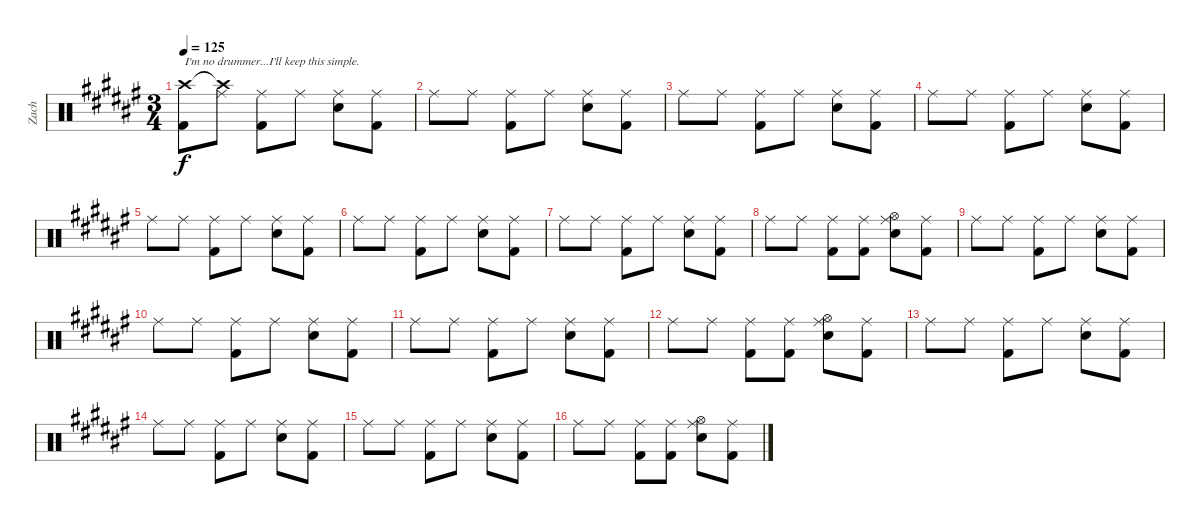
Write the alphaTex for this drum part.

\track ("Zach" "Zach") {instrument percussion}
\staff {score}
\articulation defaults
\ts (3 4)
\tempo 125
\clef neutral
\ks f#
("Crash high (hit)" "Kick (hit) 2").8{txt "I'm no drummer...I'll keep this simple." dy f} ("Crash high (hit)"{t} "Ride (middle)").8 ("Ride (middle)" "Kick (hit) 2").8 "Ride (middle)".8 ("Ride (middle)" "Snare (hit) 2").8 ("Ride (middle)" "Kick (hit) 2").8 |
"Ride (middle)".8 "Ride (middle)".8 ("Ride (middle)" "Kick (hit) 2").8 "Ride (middle)".8 ("Ride (middle)" "Snare (hit) 2").8 ("Ride (middle)" "Kick (hit) 2").8 |
"Ride (middle)".8 "Ride (middle)".8 ("Ride (middle)" "Kick (hit) 2").8 "Ride (middle)".8 ("Ride (middle)" "Snare (hit) 2").8 ("Ride (middle)" "Kick (hit) 2").8 |
"Ride (middle)".8 "Ride (middle)".8 ("Ride (middle)" "Kick (hit) 2").8 "Ride (middle)".8 ("Ride (middle)" "Snare (hit) 2").8 ("Ride (middle)" "Kick (hit) 2").8 |
"Ride (middle)".8 "Ride (middle)".8 ("Ride (middle)" "Kick (hit) 2").8 "Ride (middle)".8 ("Ride (middle)" "Snare (hit) 2").8 ("Ride (middle)" "Kick (hit) 2").8 |
"Ride (middle)".8 "Ride (middle)".8 ("Ride (middle)" "Kick (hit) 2").8 "Ride (middle)".8 ("Ride (middle)" "Snare (hit) 2").8 ("Ride (middle)" "Kick (hit) 2").8 |
"Ride (middle)".8 "Ride (middle)".8 ("Ride (middle)" "Kick (hit) 2").8 "Ride (middle)".8 ("Ride (middle)" "Snare (hit) 2").8 ("Ride (middle)" "Kick (hit) 2").8 |
"Ride (middle)".8 "Ride (middle)".8 ("Ride (middle)" "Kick (hit) 2").8 ("Ride (middle)" "Kick (hit) 2").8 ("Hi-Hat (open)" "Ride (middle)" "Snare (hit) 2").8 ("Ride (middle)" "Kick (hit) 2").8 |
"Ride (middle)".8 "Ride (middle)".8 ("Ride (middle)" "Kick (hit) 2").8 "Ride (middle)".8 ("Ride (middle)" "Snare (hit) 2").8 ("Ride (middle)" "Kick (hit) 2").8 |
"Ride (middle)".8 "Ride (middle)".8 ("Ride (middle)" "Kick (hit) 2").8 "Ride (middle)".8 ("Ride (middle)" "Snare (hit) 2").8 ("Ride (middle)" "Kick (hit) 2").8 |
"Ride (middle)".8 "Ride (middle)".8 ("Ride (middle)" "Kick (hit) 2").8 "Ride (middle)".8 ("Ride (middle)" "Snare (hit) 2").8 ("Ride (middle)" "Kick (hit) 2").8 |
"Ride (middle)".8 "Ride (middle)".8 ("Ride (middle)" "Kick (hit) 2").8 ("Ride (middle)" "Kick (hit) 2").8 ("Hi-Hat (open)" "Ride (middle)" "Snare (hit) 2").8 ("Ride (middle)" "Kick (hit) 2").8 |
"Ride (middle)".8 "Ride (middle)".8 ("Ride (middle)" "Kick (hit) 2").8 "Ride (middle)".8 ("Ride (middle)" "Snare (hit) 2").8 ("Ride (middle)" "Kick (hit) 2").8 |
"Ride (middle)".8 "Ride (middle)".8 ("Ride (middle)" "Kick (hit) 2").8 "Ride (middle)".8 ("Ride (middle)" "Snare (hit) 2").8 ("Ride (middle)" "Kick (hit) 2").8 |
"Ride (middle)".8 "Ride (middle)".8 ("Ride (middle)" "Kick (hit) 2").8 "Ride (middle)".8 ("Ride (middle)" "Snare (hit) 2").8 ("Ride (middle)" "Kick (hit) 2").8 |
"Ride (middle)".8 "Ride (middle)".8 ("Ride (middle)" "Kick (hit) 2").8 ("Ride (middle)" "Kick (hit) 2").8 ("Hi-Hat (open)" "Ride (middle)" "Snare (hit) 2").8 ("Ride (middle)" "Kick (hit) 2").8
